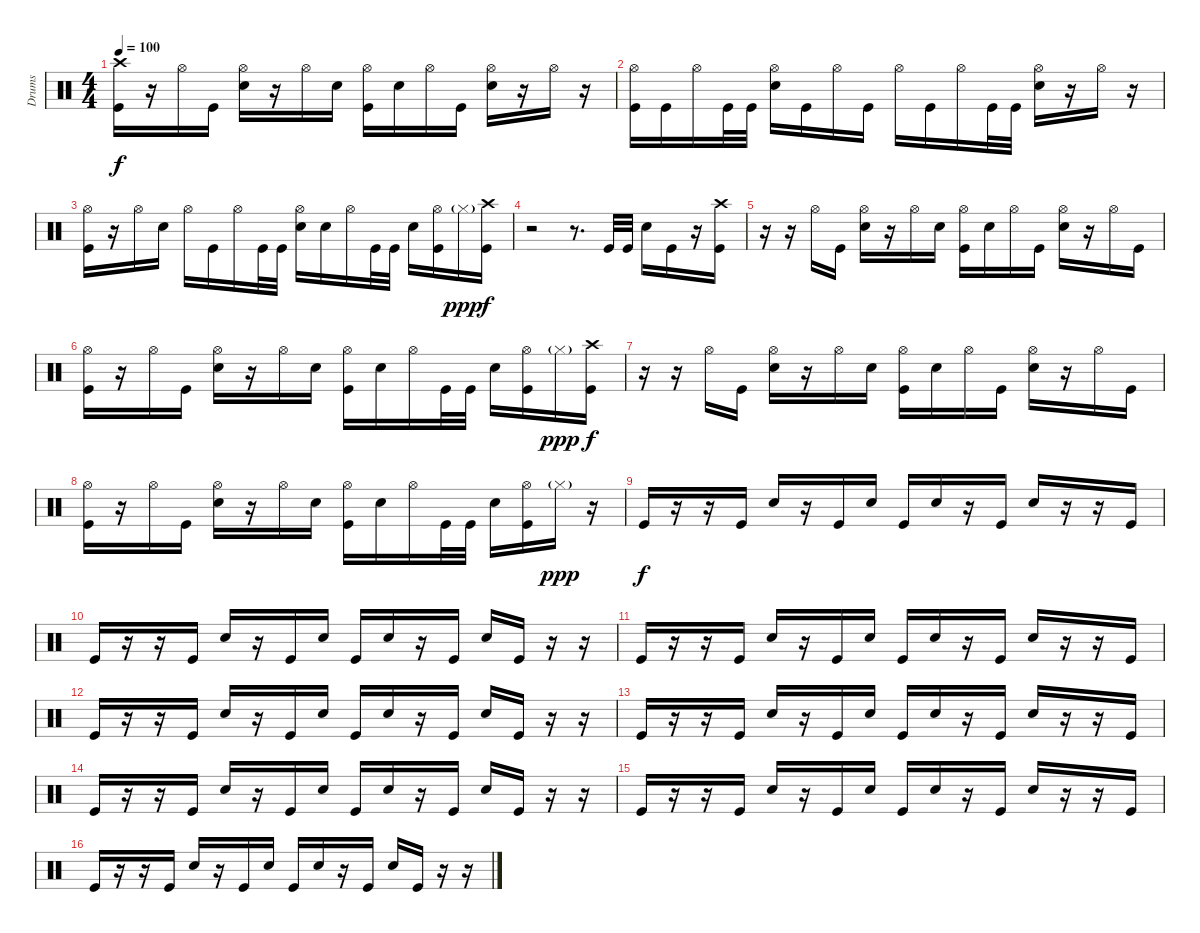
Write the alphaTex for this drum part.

\track ("Drums" "Drums") {instrument percussion}
\staff {score}
\articulation defaults
\ts (4 4)
\tempo 100
\clef neutral
\ks c
("Crash high (hit)" "Kick (hit)").16{dy f} r.16 "Hi-Hat (open)".16 "Kick (hit)".16 ("Hi-Hat (open)" "Electric Snare (hit)").16 r.16 "Hi-Hat (open)".16 "Electric Snare (hit)".16 ("Hi-Hat (open)" "Kick (hit)").16 "Electric Snare (hit)".16 "Hi-Hat (open)".16 "Kick (hit)".16 ("Hi-Hat (open)" "Electric Snare (hit)").16 r.16 "Hi-Hat (open)".16 r.16 |
("Hi-Hat (open)" "Kick (hit)").16 "Kick (hit)".16 "Hi-Hat (open)".16 "Kick (hit)".32 "Kick (hit)".32 ("Hi-Hat (open)" "Electric Snare (hit)").16 "Kick (hit)".16 "Hi-Hat (open)".16 "Kick (hit)".16 "Hi-Hat (open)".16 "Kick (hit)".16 "Hi-Hat (open)".16 "Kick (hit)".32 "Kick (hit)".32 ("Hi-Hat (open)" "Electric Snare (hit)").16 r.16 "Hi-Hat (open)".16 r.16 |
("Hi-Hat (open)" "Kick (hit)").16 r.16 "Hi-Hat (open)".16 "Electric Snare (hit)".16 "Hi-Hat (open)".16 "Kick (hit)".16 "Hi-Hat (open)".16 "Kick (hit)".32 "Kick (hit)".32 ("Hi-Hat (open)" "Electric Snare (hit)").16 "Electric Snare (hit)".16 "Hi-Hat (open)".16 "Kick (hit)".32 "Kick (hit)".32 "Electric Snare (hit)".16 ("Hi-Hat (open)" "Kick (hit)").16 "Hi-Hat (closed)"{g}.16{dy ppp} ("Crash high (hit)" "Kick (hit)").16{dy f} |
r.2 r.8{d} "Kick (hit)".32 "Kick (hit)".32 "Electric Snare (hit)".16 "Kick (hit)".16 r.16 ("Crash high (hit)" "Kick (hit)").16 |
r.16 r.16 "Hi-Hat (open)".16 "Kick (hit)".16 ("Hi-Hat (open)" "Electric Snare (hit)").16 r.16 "Hi-Hat (open)".16 "Electric Snare (hit)".16 ("Hi-Hat (open)" "Kick (hit)").16 "Electric Snare (hit)".16 "Hi-Hat (open)".16 "Kick (hit)".16 ("Hi-Hat (open)" "Electric Snare (hit)").16 r.16 "Hi-Hat (open)".16 "Kick (hit)".16 |
("Hi-Hat (open)" "Kick (hit)").16 r.16 "Hi-Hat (open)".16 "Kick (hit)".16 ("Hi-Hat (open)" "Electric Snare (hit)").16 r.16 "Hi-Hat (open)".16 "Electric Snare (hit)".16 ("Hi-Hat (open)" "Kick (hit)").16 "Electric Snare (hit)".16 "Hi-Hat (open)".16 "Kick (hit)".32 "Kick (hit)".32 "Electric Snare (hit)".16 ("Hi-Hat (open)" "Kick (hit)").16 "Hi-Hat (closed)"{g}.16{dy ppp} ("Crash high (hit)" "Kick (hit)").16{dy f} |
r.16 r.16 "Hi-Hat (open)".16 "Kick (hit)".16 ("Hi-Hat (open)" "Electric Snare (hit)").16 r.16 "Hi-Hat (open)".16 "Electric Snare (hit)".16 ("Hi-Hat (open)" "Kick (hit)").16 "Electric Snare (hit)".16 "Hi-Hat (open)".16 "Kick (hit)".16 ("Hi-Hat (open)" "Electric Snare (hit)").16 r.16 "Hi-Hat (open)".16 "Kick (hit)".16 |
("Hi-Hat (open)" "Kick (hit)").16 r.16 "Hi-Hat (open)".16 "Kick (hit)".16 ("Hi-Hat (open)" "Electric Snare (hit)").16 r.16 "Hi-Hat (open)".16 "Electric Snare (hit)".16 ("Hi-Hat (open)" "Kick (hit)").16 "Electric Snare (hit)".16 "Hi-Hat (open)".16 "Kick (hit)".32 "Kick (hit)".32 "Electric Snare (hit)".16 ("Hi-Hat (open)" "Kick (hit)").16 "Hi-Hat (closed)"{g}.16{dy ppp} r.16 |
"Kick (hit)".16{dy f} r.16 r.16 "Kick (hit)".16 "Electric Snare (hit)".16 r.16 "Kick (hit)".16 "Electric Snare (hit)".16 "Kick (hit)".16 "Electric Snare (hit)".16 r.16 "Kick (hit)".16 "Electric Snare (hit)".16 r.16 r.16 "Kick (hit)".16 |
"Kick (hit)".16 r.16 r.16 "Kick (hit)".16 "Electric Snare (hit)".16 r.16 "Kick (hit)".16 "Electric Snare (hit)".16 "Kick (hit)".16 "Electric Snare (hit)".16 r.16 "Kick (hit)".16 "Electric Snare (hit)".16 "Kick (hit)".16 r.16 r.16 |
"Kick (hit)".16 r.16 r.16 "Kick (hit)".16 "Electric Snare (hit)".16 r.16 "Kick (hit)".16 "Electric Snare (hit)".16 "Kick (hit)".16 "Electric Snare (hit)".16 r.16 "Kick (hit)".16 "Electric Snare (hit)".16 r.16 r.16 "Kick (hit)".16 |
"Kick (hit)".16 r.16 r.16 "Kick (hit)".16 "Electric Snare (hit)".16 r.16 "Kick (hit)".16 "Electric Snare (hit)".16 "Kick (hit)".16 "Electric Snare (hit)".16 r.16 "Kick (hit)".16 "Electric Snare (hit)".16 "Kick (hit)".16 r.16 r.16 |
"Kick (hit)".16 r.16 r.16 "Kick (hit)".16 "Electric Snare (hit)".16 r.16 "Kick (hit)".16 "Electric Snare (hit)".16 "Kick (hit)".16 "Electric Snare (hit)".16 r.16 "Kick (hit)".16 "Electric Snare (hit)".16 r.16 r.16 "Kick (hit)".16 |
"Kick (hit)".16 r.16 r.16 "Kick (hit)".16 "Electric Snare (hit)".16 r.16 "Kick (hit)".16 "Electric Snare (hit)".16 "Kick (hit)".16 "Electric Snare (hit)".16 r.16 "Kick (hit)".16 "Electric Snare (hit)".16 "Kick (hit)".16 r.16 r.16 |
"Kick (hit)".16 r.16 r.16 "Kick (hit)".16 "Electric Snare (hit)".16 r.16 "Kick (hit)".16 "Electric Snare (hit)".16 "Kick (hit)".16 "Electric Snare (hit)".16 r.16 "Kick (hit)".16 "Electric Snare (hit)".16 r.16 r.16 "Kick (hit)".16 |
"Kick (hit)".16 r.16 r.16 "Kick (hit)".16 "Electric Snare (hit)".16 r.16 "Kick (hit)".16 "Electric Snare (hit)".16 "Kick (hit)".16 "Electric Snare (hit)".16 r.16 "Kick (hit)".16 "Electric Snare (hit)".16 "Kick (hit)".16 r.16 r.16
